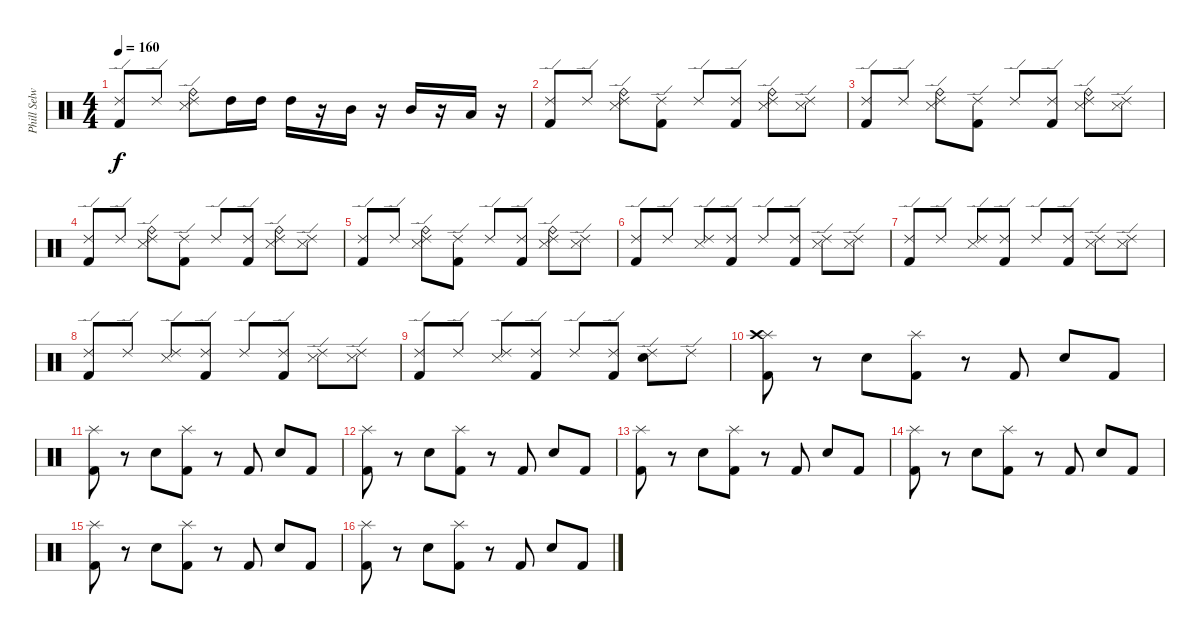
\track ("Phill Selway" "Phill Selw") {instrument percussion}
\staff {score}
\articulation defaults
\ts (4 4)
\tempo 160
\clef neutral
\ks c
("Kick (hit) 2" "Ride (edge) 2").8{dy f} "Ride (edge) 2".8 ("Snare (side stick) 3" "Ride (bell)" "Ride (edge) 2").8 "High Tom (hit)".16 "High Tom (hit)".16 "High Tom (hit)".16 r.16 "Mid Tom (hit)".16 r.16 "Mid Tom (hit)".16 r.16 "Low Tom (hit)".16 r.16 |
("Kick (hit) 2" "Ride (edge) 2").8 "Ride (edge) 2".8 ("Snare (side stick) 3" "Ride (bell)" "Ride (edge) 2").8 ("Kick (hit) 2" "Ride (edge) 2").8 "Ride (edge) 2".8 ("Kick (hit) 2" "Ride (edge) 2").8 ("Snare (side stick) 3" "Ride (bell)" "Ride (edge) 2").8 ("Snare (side stick) 3" "Ride (edge) 2").8 |
("Kick (hit) 2" "Ride (edge) 2").8 "Ride (edge) 2".8 ("Snare (side stick) 3" "Ride (bell)" "Ride (edge) 2").8 ("Kick (hit) 2" "Ride (edge) 2").8 "Ride (edge) 2".8 ("Kick (hit) 2" "Ride (edge) 2").8 ("Snare (side stick) 3" "Ride (bell)" "Ride (edge) 2").8 ("Snare (side stick) 3" "Ride (edge) 2").8 |
("Kick (hit) 2" "Ride (edge) 2").8 "Ride (edge) 2".8 ("Snare (side stick) 3" "Ride (bell)" "Ride (edge) 2").8 ("Kick (hit) 2" "Ride (edge) 2").8 "Ride (edge) 2".8 ("Kick (hit) 2" "Ride (edge) 2").8 ("Snare (side stick) 3" "Ride (bell)" "Ride (edge) 2").8 ("Snare (side stick) 3" "Ride (edge) 2").8 |
("Kick (hit) 2" "Ride (edge) 2").8 "Ride (edge) 2".8 ("Snare (side stick) 3" "Ride (bell)" "Ride (edge) 2").8 ("Kick (hit) 2" "Ride (edge) 2").8 "Ride (edge) 2".8 ("Kick (hit) 2" "Ride (edge) 2").8 ("Snare (side stick) 3" "Ride (bell)" "Ride (edge) 2").8 ("Snare (side stick) 3" "Ride (edge) 2").8 |
("Kick (hit) 2" "Ride (edge) 2").8 "Ride (edge) 2".8 ("Snare (side stick) 3" "Ride (edge) 2").8 ("Kick (hit) 2" "Ride (edge) 2").8 "Ride (edge) 2".8 ("Kick (hit) 2" "Ride (edge) 2").8 ("Snare (side stick) 3" "Ride (edge) 2").8 ("Snare (side stick) 3" "Ride (edge) 2").8 |
("Kick (hit) 2" "Ride (edge) 2").8 "Ride (edge) 2".8 ("Snare (side stick) 3" "Ride (edge) 2").8 ("Kick (hit) 2" "Ride (edge) 2").8 "Ride (edge) 2".8 ("Kick (hit) 2" "Ride (edge) 2").8 ("Snare (side stick) 3" "Ride (edge) 2").8 ("Snare (side stick) 3" "Ride (edge) 2").8 |
("Kick (hit) 2" "Ride (edge) 2").8 "Ride (edge) 2".8 ("Snare (side stick) 3" "Ride (edge) 2").8 ("Kick (hit) 2" "Ride (edge) 2").8 "Ride (edge) 2".8 ("Kick (hit) 2" "Ride (edge) 2").8 ("Snare (side stick) 3" "Ride (edge) 2").8 ("Snare (side stick) 3" "Ride (edge) 2").8 |
("Kick (hit) 2" "Ride (edge) 2").8 "Ride (edge) 2".8 ("Snare (side stick) 3" "Ride (edge) 2").8 ("Kick (hit) 2" "Ride (edge) 2").8 "Ride (edge) 2".8 ("Kick (hit) 2" "Ride (edge) 2").8 ("Snare (hit) 2" "Ride (edge) 2").8 "Ride (edge) 2".8 |
("Kick (hit) 2" "Splash (hit)" "Crash high (hit)").8 r.8 "Snare (hit) 2".8 ("Kick (hit) 2" "Splash (hit)").8 r.8 "Kick (hit) 2".8 "Snare (hit) 2".8 "Kick (hit) 2".8 |
("Kick (hit) 2" "Splash (hit)").8 r.8 "Snare (hit) 2".8 ("Kick (hit) 2" "Splash (hit)").8 r.8 "Kick (hit) 2".8 "Snare (hit) 2".8 "Kick (hit) 2".8 |
("Kick (hit) 2" "Splash (hit)").8 r.8 "Snare (hit) 2".8 ("Kick (hit) 2" "Splash (hit)").8 r.8 "Kick (hit) 2".8 "Snare (hit) 2".8 "Kick (hit) 2".8 |
("Kick (hit) 2" "Splash (hit)").8 r.8 "Snare (hit) 2".8 ("Kick (hit) 2" "Splash (hit)").8 r.8 "Kick (hit) 2".8 "Snare (hit) 2".8 "Kick (hit) 2".8 |
("Kick (hit) 2" "Splash (hit)").8 r.8 "Snare (hit) 2".8 ("Kick (hit) 2" "Splash (hit)").8 r.8 "Kick (hit) 2".8 "Snare (hit) 2".8 "Kick (hit) 2".8 |
("Kick (hit) 2" "Splash (hit)").8 r.8 "Snare (hit) 2".8 ("Kick (hit) 2" "Splash (hit)").8 r.8 "Kick (hit) 2".8 "Snare (hit) 2".8 "Kick (hit) 2".8 |
("Kick (hit) 2" "Splash (hit)").8 r.8 "Snare (hit) 2".8 ("Kick (hit) 2" "Splash (hit)").8 r.8 "Kick (hit) 2".8 "Snare (hit) 2".8 "Kick (hit) 2".8
